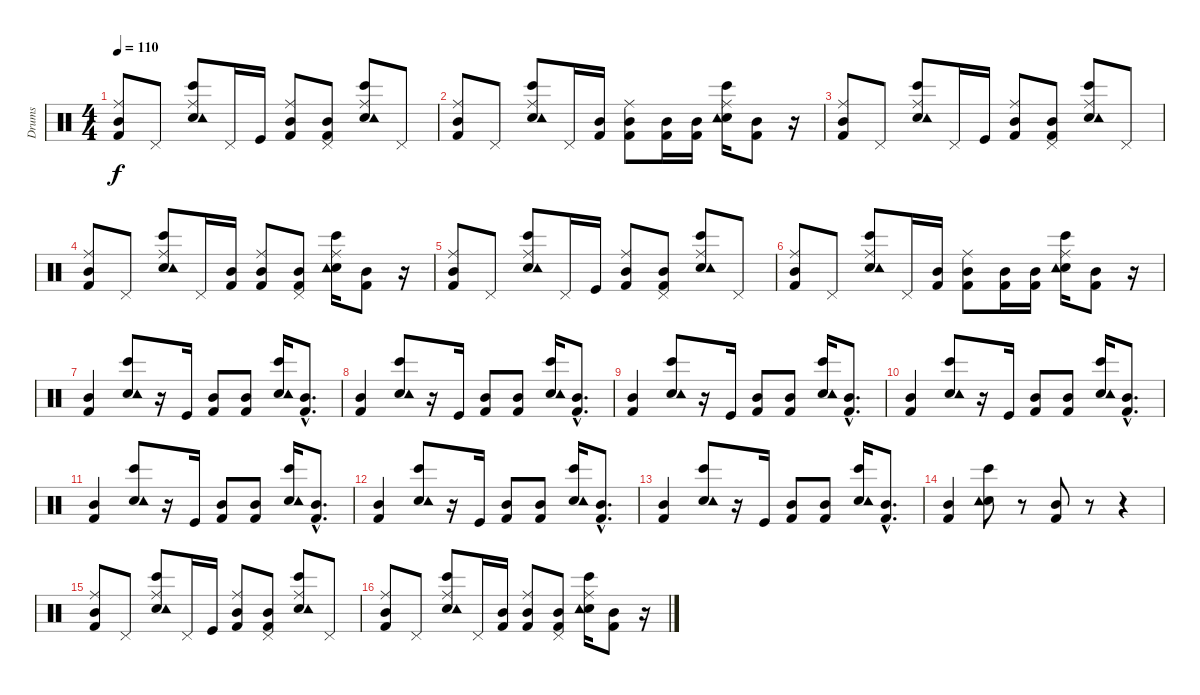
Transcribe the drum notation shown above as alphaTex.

\track ("Drums" "Drums") {instrument percussion}
\staff {score}
\articulation defaults
\ts (4 4)
\tempo 110
\clef neutral
\ks c
("Ride (middle)" "Mid Tom (hit)" "Kick (hit) 2").8{dy f} "Pedal Hi-Hat (hit)".8 ("Ride (middle)" "Electric Snare (hit)" "Bongo High (hit)" "Tambourine (hit)").8 "Pedal Hi-Hat (hit)".16 "Kick (hit)".16 ("Ride (middle)" "Mid Tom (hit)" "Kick (hit) 2").8 ("Pedal Hi-Hat (hit)" "Mid Tom (hit)" "Kick (hit) 2").8 ("Ride (middle)" "Electric Snare (hit)" "Bongo High (hit)" "Tambourine (hit)").8 "Pedal Hi-Hat (hit)".8 |
("Ride (middle)" "Mid Tom (hit)" "Kick (hit) 2").8 "Pedal Hi-Hat (hit)".8 ("Ride (middle)" "Electric Snare (hit)" "Bongo High (hit)" "Tambourine (hit)").8 "Pedal Hi-Hat (hit)".16 ("Mid Tom (hit)" "Kick (hit) 2").16 ("Ride (middle)" "Mid Tom (hit)" "Kick (hit) 2").8 ("Mid Tom (hit)" "Kick (hit) 2").16 ("Mid Tom (hit)" "Kick (hit) 2").16 ("Ride (middle)" "Electric Snare (hit)" "Bongo High (hit)" "Tambourine (hit)").16 ("Mid Tom (hit)" "Kick (hit) 2").8 r.16 |
("Ride (middle)" "Mid Tom (hit)" "Kick (hit) 2").8 "Pedal Hi-Hat (hit)".8 ("Ride (middle)" "Electric Snare (hit)" "Bongo High (hit)" "Tambourine (hit)").8 "Pedal Hi-Hat (hit)".16 "Kick (hit)".16 ("Ride (middle)" "Mid Tom (hit)" "Kick (hit) 2").8 ("Pedal Hi-Hat (hit)" "Mid Tom (hit)" "Kick (hit) 2").8 ("Ride (middle)" "Electric Snare (hit)" "Bongo High (hit)" "Tambourine (hit)").8 "Pedal Hi-Hat (hit)".8 |
("Ride (middle)" "Mid Tom (hit)" "Kick (hit) 2").8 "Pedal Hi-Hat (hit)".8 ("Ride (middle)" "Electric Snare (hit)" "Bongo High (hit)" "Tambourine (hit)").8 "Pedal Hi-Hat (hit)".16 ("Mid Tom (hit)" "Kick (hit) 2").16 ("Ride (middle)" "Mid Tom (hit)" "Kick (hit) 2").8 ("Pedal Hi-Hat (hit)" "Mid Tom (hit)" "Kick (hit) 2").8 ("Ride (middle)" "Electric Snare (hit)" "Bongo High (hit)" "Tambourine (hit)").16 ("Mid Tom (hit)" "Kick (hit) 2").8 r.16 |
("Ride (middle)" "Mid Tom (hit)" "Kick (hit) 2").8 "Pedal Hi-Hat (hit)".8 ("Ride (middle)" "Electric Snare (hit)" "Bongo High (hit)" "Tambourine (hit)").8 "Pedal Hi-Hat (hit)".16 "Kick (hit)".16 ("Ride (middle)" "Mid Tom (hit)" "Kick (hit) 2").8 ("Pedal Hi-Hat (hit)" "Mid Tom (hit)" "Kick (hit) 2").8 ("Ride (middle)" "Electric Snare (hit)" "Bongo High (hit)" "Tambourine (hit)").8 "Pedal Hi-Hat (hit)".8 |
("Ride (middle)" "Mid Tom (hit)" "Kick (hit) 2").8 "Pedal Hi-Hat (hit)".8 ("Ride (middle)" "Electric Snare (hit)" "Bongo High (hit)" "Tambourine (hit)").8 "Pedal Hi-Hat (hit)".16 ("Mid Tom (hit)" "Kick (hit) 2").16 ("Ride (middle)" "Mid Tom (hit)" "Kick (hit) 2").8 ("Mid Tom (hit)" "Kick (hit) 2").16 ("Mid Tom (hit)" "Kick (hit) 2").16 ("Ride (middle)" "Electric Snare (hit)" "Bongo High (hit)" "Tambourine (hit)").16 ("Mid Tom (hit)" "Kick (hit) 2").8 r.16 |
("Mid Tom (hit)" "Kick (hit) 2").4 ("Electric Snare (hit)" "Bongo High (hit)" "Tambourine (hit)").8 r.16 "Kick (hit)".16 ("Mid Tom (hit)" "Kick (hit) 2").8 ("Mid Tom (hit)" "Kick (hit) 2").8 ("Electric Snare (hit)" "Bongo High (hit)" "Tambourine (hit)").16 ("Mid Tom (hit)"{hac} "Kick (hit) 2"{hac}).8{d} |
("Mid Tom (hit)" "Kick (hit) 2").4 ("Electric Snare (hit)" "Bongo High (hit)" "Tambourine (hit)").8 r.16 "Kick (hit)".16 ("Mid Tom (hit)" "Kick (hit) 2").8 ("Mid Tom (hit)" "Kick (hit) 2").8 ("Electric Snare (hit)" "Bongo High (hit)" "Tambourine (hit)").16 ("Mid Tom (hit)"{hac} "Kick (hit) 2"{hac}).8{d} |
("Mid Tom (hit)" "Kick (hit) 2").4 ("Electric Snare (hit)" "Bongo High (hit)" "Tambourine (hit)").8 r.16 "Kick (hit)".16 ("Mid Tom (hit)" "Kick (hit) 2").8 ("Mid Tom (hit)" "Kick (hit) 2").8 ("Electric Snare (hit)" "Bongo High (hit)" "Tambourine (hit)").16 ("Mid Tom (hit)"{hac} "Kick (hit) 2"{hac}).8{d} |
("Mid Tom (hit)" "Kick (hit) 2").4 ("Electric Snare (hit)" "Bongo High (hit)" "Tambourine (hit)").8 r.16 "Kick (hit)".16 ("Mid Tom (hit)" "Kick (hit) 2").8 ("Mid Tom (hit)" "Kick (hit) 2").8 ("Electric Snare (hit)" "Bongo High (hit)" "Tambourine (hit)").16 ("Mid Tom (hit)"{hac} "Kick (hit) 2"{hac}).8{d} |
("Mid Tom (hit)" "Kick (hit) 2").4 ("Electric Snare (hit)" "Bongo High (hit)" "Tambourine (hit)").8 r.16 "Kick (hit)".16 ("Mid Tom (hit)" "Kick (hit) 2").8 ("Mid Tom (hit)" "Kick (hit) 2").8 ("Electric Snare (hit)" "Bongo High (hit)" "Tambourine (hit)").16 ("Mid Tom (hit)"{hac} "Kick (hit) 2"{hac}).8{d} |
("Mid Tom (hit)" "Kick (hit) 2").4 ("Electric Snare (hit)" "Bongo High (hit)" "Tambourine (hit)").8 r.16 "Kick (hit)".16 ("Mid Tom (hit)" "Kick (hit) 2").8 ("Mid Tom (hit)" "Kick (hit) 2").8 ("Electric Snare (hit)" "Bongo High (hit)" "Tambourine (hit)").16 ("Mid Tom (hit)"{hac} "Kick (hit) 2"{hac}).8{d} |
("Mid Tom (hit)" "Kick (hit) 2").4 ("Electric Snare (hit)" "Bongo High (hit)" "Tambourine (hit)").8 r.16 "Kick (hit)".16 ("Mid Tom (hit)" "Kick (hit) 2").8 ("Mid Tom (hit)" "Kick (hit) 2").8 ("Electric Snare (hit)" "Bongo High (hit)" "Tambourine (hit)").16 ("Mid Tom (hit)"{hac} "Kick (hit) 2"{hac}).8{d} |
("Mid Tom (hit)" "Kick (hit) 2").4 ("Electric Snare (hit)" "Bongo High (hit)" "Tambourine (hit)").8 r.8 ("Mid Tom (hit)" "Kick (hit) 2").8 r.8 r.4 |
("Ride (middle)" "Mid Tom (hit)" "Kick (hit) 2").8 "Pedal Hi-Hat (hit)".8 ("Ride (middle)" "Electric Snare (hit)" "Bongo High (hit)" "Tambourine (hit)").8 "Pedal Hi-Hat (hit)".16 "Kick (hit)".16 ("Ride (middle)" "Mid Tom (hit)" "Kick (hit) 2").8 ("Pedal Hi-Hat (hit)" "Mid Tom (hit)" "Kick (hit) 2").8 ("Ride (middle)" "Electric Snare (hit)" "Bongo High (hit)" "Tambourine (hit)").8 "Pedal Hi-Hat (hit)".8 |
("Ride (middle)" "Mid Tom (hit)" "Kick (hit) 2").8 "Pedal Hi-Hat (hit)".8 ("Ride (middle)" "Electric Snare (hit)" "Bongo High (hit)" "Tambourine (hit)").8 "Pedal Hi-Hat (hit)".16 ("Mid Tom (hit)" "Kick (hit) 2").16 ("Ride (middle)" "Mid Tom (hit)" "Kick (hit) 2").8 ("Pedal Hi-Hat (hit)" "Mid Tom (hit)" "Kick (hit) 2").8 ("Ride (middle)" "Electric Snare (hit)" "Bongo High (hit)" "Tambourine (hit)").16 ("Mid Tom (hit)" "Kick (hit) 2").8 r.16
